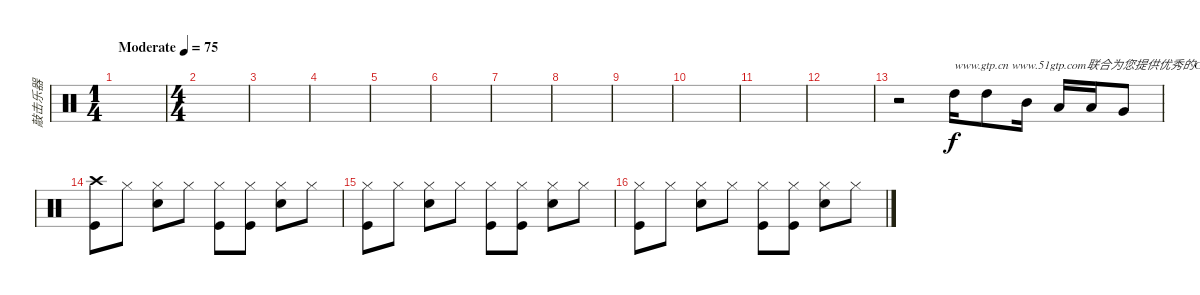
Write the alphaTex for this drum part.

\track ("敲击乐器" "敲击乐器") {instrument percussion}
\staff {score}
\articulation defaults
\ts (1 4)
\tempo (75 "Moderate")
\clef neutral
\ks c
|
\ts (4 4)
|
|
|
|
|
|
|
|
|
|
|
r.2 "High Tom (hit)".16{txt "www.gtp.cn www.51gtp.com联合为您提供优秀的GTP!"} "High Tom (hit)".8 "Mid Tom (hit)".16 "Low Tom (hit)".16 "Low Tom (hit)".16 "Very Low Tom (hit)".8 |
("Crash high (hit)" "Kick (hit)").8 "Hi-Hat (closed)".8 ("Snare (hit) 2" "Hi-Hat (closed)").8 "Hi-Hat (closed)".8 ("Kick (hit)" "Hi-Hat (closed)").8 ("Kick (hit)" "Hi-Hat (closed)").8 ("Snare (hit) 2" "Hi-Hat (closed)").8 "Hi-Hat (closed)".8 |
("Hi-Hat (closed)" "Kick (hit)").8 "Hi-Hat (closed)".8 ("Snare (hit) 2" "Hi-Hat (closed)").8 "Hi-Hat (closed)".8 ("Kick (hit)" "Hi-Hat (closed)").8 ("Kick (hit)" "Hi-Hat (closed)").8 ("Snare (hit) 2" "Hi-Hat (closed)").8 "Hi-Hat (closed)".8 |
("Hi-Hat (closed)" "Kick (hit)").8 "Hi-Hat (closed)".8 ("Snare (hit) 2" "Hi-Hat (closed)").8 "Hi-Hat (closed)".8 ("Kick (hit)" "Hi-Hat (closed)").8 ("Kick (hit)" "Hi-Hat (closed)").8 ("Snare (hit) 2" "Hi-Hat (closed)").8 "Hi-Hat (closed)".8
